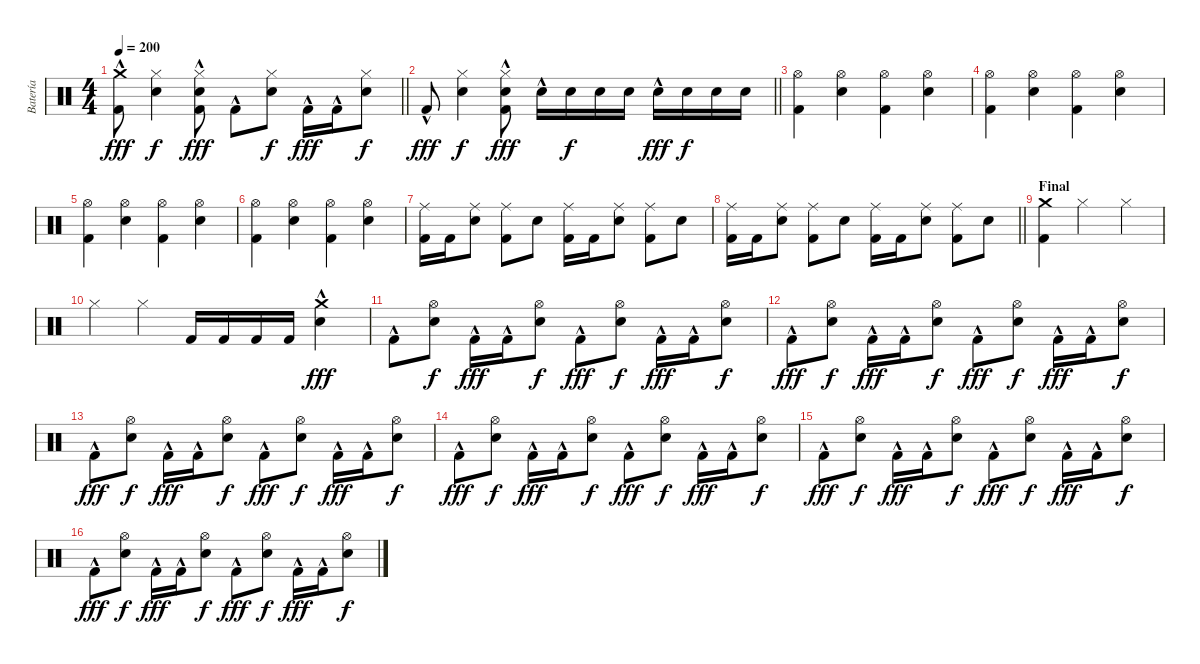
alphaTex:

\track ("Batería" "Batería") {instrument percussion bank 6}
\staff {score}
\articulation defaults
\ts (4 4)
\tempo 200
\clef neutral
\barLineRight lightlight
\ks c
("Crash medium (hit)" "Kick (hit) 2"{hac}).8{dy fff} ("Snare (hit) 2" "Hi-Hat (closed)").4{dy f} ("Snare (hit) 2" "Hi-Hat (closed)" "Kick (hit) 2"{hac}).8{dy fff} "Kick (hit) 2"{hac}.8 ("Snare (hit) 2" "Hi-Hat (closed)").8{dy f} "Kick (hit) 2"{hac}.16{dy fff} "Kick (hit) 2"{hac}.16 ("Snare (hit) 2" "Hi-Hat (closed)").8{dy f} |
\barLineRight lightlight "Kick (hit) 2"{hac}.8{dy fff}
("Snare (hit) 2" "Hi-Hat (closed)").4{dy f} ("Snare (hit) 2" "Hi-Hat (closed)" "Kick (hit) 2"{hac}).8{dy fff} "Snare (hit) 2"{hac}.16 "Snare (hit) 2".16{dy f} "Snare (hit) 2".16 "Snare (hit) 2".16 "Snare (hit) 2"{hac}.16{dy fff} "Snare (hit) 2".16{dy f} "Snare (hit) 2".16 "Snare (hit) 2".16 |
("Hi-Hat (open)" "Kick (hit) 2").4 ("Snare (hit) 2" "Hi-Hat (open)").4 ("Hi-Hat (open)" "Kick (hit) 2").4 ("Snare (hit) 2" "Hi-Hat (open)").4 |
("Hi-Hat (open)" "Kick (hit) 2").4 ("Snare (hit) 2" "Hi-Hat (open)").4 ("Hi-Hat (open)" "Kick (hit) 2").4 ("Snare (hit) 2" "Hi-Hat (open)").4 |
("Hi-Hat (open)" "Kick (hit) 2").4 ("Snare (hit) 2" "Hi-Hat (open)").4 ("Hi-Hat (open)" "Kick (hit) 2").4 ("Snare (hit) 2" "Hi-Hat (open)").4 |
("Hi-Hat (open)" "Kick (hit) 2").4 ("Snare (hit) 2" "Hi-Hat (open)").4 ("Hi-Hat (open)" "Kick (hit) 2").4 ("Snare (hit) 2" "Hi-Hat (open)").4 |
("Ride (middle)" "Kick (hit) 2").16 "Kick (hit) 2".16 ("Snare (hit) 2" "Ride (middle)").8 ("Ride (middle)" "Kick (hit) 2").8 "Snare (hit) 2".8 ("Ride (middle)" "Kick (hit) 2").16 "Kick (hit) 2".16 ("Snare (hit) 2" "Ride (middle)").8 ("Ride (middle)" "Kick (hit) 2").8 "Snare (hit) 2".8 |
\barLineRight lightlight
("Ride (middle)" "Kick (hit) 2").16 "Kick (hit) 2".16 ("Snare (hit) 2" "Ride (middle)").8 ("Ride (middle)" "Kick (hit) 2").8 "Snare (hit) 2".8 ("Ride (middle)" "Kick (hit) 2").16 "Kick (hit) 2".16 ("Snare (hit) 2" "Ride (middle)").8 ("Ride (middle)" "Kick (hit) 2").8 "Snare (hit) 2".8 |
\section ("" "Final")
("Crash medium (hit)" "Kick (hit) 2").4 "Hi-Hat (closed)".2 "Hi-Hat (closed)".4 |
"Hi-Hat (closed)".4 "Hi-Hat (closed)".4 "Kick (hit) 2".16 "Kick (hit) 2".16 "Kick (hit) 2".16 "Kick (hit) 2".16 ("Crash medium (hit)" "Snare (hit) 2"{hac}).4{dy fff} |
"Kick (hit) 2"{hac}.8 ("Snare (hit) 2" "Hi-Hat (open)").8{dy f} "Kick (hit) 2"{hac}.16{dy fff} "Kick (hit) 2"{hac}.16 ("Snare (hit) 2" "Hi-Hat (open)").8{dy f} "Kick (hit) 2"{hac}.8{dy fff} ("Snare (hit) 2" "Hi-Hat (open)").8{dy f} "Kick (hit) 2"{hac}.16{dy fff} "Kick (hit) 2"{hac}.16 ("Snare (hit) 2" "Hi-Hat (open)").8{dy f} |
"Kick (hit) 2"{hac}.8{dy fff} ("Snare (hit) 2" "Hi-Hat (open)").8{dy f} "Kick (hit) 2"{hac}.16{dy fff} "Kick (hit) 2"{hac}.16 ("Snare (hit) 2" "Hi-Hat (open)").8{dy f} "Kick (hit) 2"{hac}.8{dy fff} ("Snare (hit) 2" "Hi-Hat (open)").8{dy f} "Kick (hit) 2"{hac}.16{dy fff} "Kick (hit) 2"{hac}.16 ("Snare (hit) 2" "Hi-Hat (open)").8{dy f} |
"Kick (hit) 2"{hac}.8{dy fff} ("Snare (hit) 2" "Hi-Hat (open)").8{dy f} "Kick (hit) 2"{hac}.16{dy fff} "Kick (hit) 2"{hac}.16 ("Snare (hit) 2" "Hi-Hat (open)").8{dy f} "Kick (hit) 2"{hac}.8{dy fff} ("Snare (hit) 2" "Hi-Hat (open)").8{dy f} "Kick (hit) 2"{hac}.16{dy fff} "Kick (hit) 2"{hac}.16 ("Snare (hit) 2" "Hi-Hat (open)").8{dy f} |
"Kick (hit) 2"{hac}.8{dy fff} ("Snare (hit) 2" "Hi-Hat (open)").8{dy f} "Kick (hit) 2"{hac}.16{dy fff} "Kick (hit) 2"{hac}.16 ("Snare (hit) 2" "Hi-Hat (open)").8{dy f} "Kick (hit) 2"{hac}.8{dy fff} ("Snare (hit) 2" "Hi-Hat (open)").8{dy f} "Kick (hit) 2"{hac}.16{dy fff} "Kick (hit) 2"{hac}.16 ("Snare (hit) 2" "Hi-Hat (open)").8{dy f} |
"Kick (hit) 2"{hac}.8{dy fff} ("Snare (hit) 2" "Hi-Hat (open)").8{dy f} "Kick (hit) 2"{hac}.16{dy fff} "Kick (hit) 2"{hac}.16 ("Snare (hit) 2" "Hi-Hat (open)").8{dy f} "Kick (hit) 2"{hac}.8{dy fff} ("Snare (hit) 2" "Hi-Hat (open)").8{dy f} "Kick (hit) 2"{hac}.16{dy fff} "Kick (hit) 2"{hac}.16 ("Snare (hit) 2" "Hi-Hat (open)").8{dy f} |
"Kick (hit) 2"{hac}.8{dy fff} ("Snare (hit) 2" "Hi-Hat (open)").8{dy f} "Kick (hit) 2"{hac}.16{dy fff} "Kick (hit) 2"{hac}.16 ("Snare (hit) 2" "Hi-Hat (open)").8{dy f} "Kick (hit) 2"{hac}.8{dy fff} ("Snare (hit) 2" "Hi-Hat (open)").8{dy f} "Kick (hit) 2"{hac}.16{dy fff} "Kick (hit) 2"{hac}.16 ("Snare (hit) 2" "Hi-Hat (open)").8{dy f}
